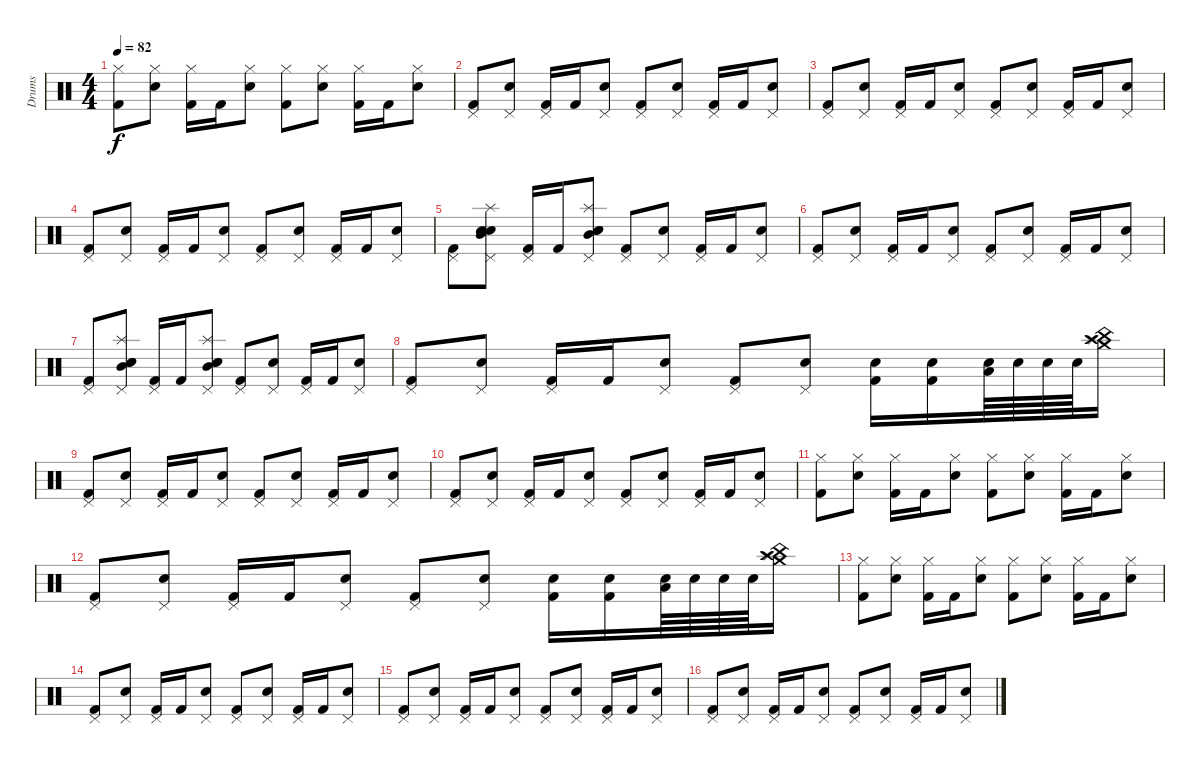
\track ("Drums" "Drums") {instrument percussion}
\staff {score}
\articulation defaults
\ts (4 4)
\tempo 82
\clef neutral
\ks c
("Kick (hit) 2" "Hi-Hat (closed)").8{dy f} ("Snare (hit) 2" "Hi-Hat (closed)").8 ("Kick (hit) 2" "Hi-Hat (closed)").16 "Kick (hit) 2".16 ("Snare (hit) 2" "Hi-Hat (closed)").8 ("Kick (hit) 2" "Hi-Hat (closed)").8 ("Snare (hit) 2" "Hi-Hat (closed)").8 ("Kick (hit) 2" "Hi-Hat (closed)").16 "Kick (hit) 2".16 ("Snare (hit) 2" "Hi-Hat (closed)").8 |
("Kick (hit) 2" "Pedal Hi-Hat (hit)").8 ("Snare (hit) 2" "Pedal Hi-Hat (hit)").8 ("Kick (hit) 2" "Pedal Hi-Hat (hit)").16 "Kick (hit) 2".16 ("Snare (hit) 2" "Pedal Hi-Hat (hit)").8 ("Kick (hit) 2" "Pedal Hi-Hat (hit)").8 ("Snare (hit) 2" "Pedal Hi-Hat (hit)").8 ("Kick (hit) 2" "Pedal Hi-Hat (hit)").16 "Kick (hit) 2".16 ("Snare (hit) 2" "Pedal Hi-Hat (hit)").8 |
("Kick (hit) 2" "Pedal Hi-Hat (hit)").8 ("Snare (hit) 2" "Pedal Hi-Hat (hit)").8 ("Kick (hit) 2" "Pedal Hi-Hat (hit)").16 "Kick (hit) 2".16 ("Snare (hit) 2" "Pedal Hi-Hat (hit)").8 ("Kick (hit) 2" "Pedal Hi-Hat (hit)").8 ("Snare (hit) 2" "Pedal Hi-Hat (hit)").8 ("Kick (hit) 2" "Pedal Hi-Hat (hit)").16 "Kick (hit) 2".16 ("Snare (hit) 2" "Pedal Hi-Hat (hit)").8 |
("Kick (hit) 2" "Pedal Hi-Hat (hit)").8 ("Snare (hit) 2" "Pedal Hi-Hat (hit)").8 ("Kick (hit) 2" "Pedal Hi-Hat (hit)").16 "Kick (hit) 2".16 ("Snare (hit) 2" "Pedal Hi-Hat (hit)").8 ("Kick (hit) 2" "Pedal Hi-Hat (hit)").8 ("Snare (hit) 2" "Pedal Hi-Hat (hit)").8 ("Kick (hit) 2" "Pedal Hi-Hat (hit)").16 "Kick (hit) 2".16 ("Snare (hit) 2" "Pedal Hi-Hat (hit)").8 |
("Kick (hit) 2" "Pedal Hi-Hat (hit)").8 ("Mid Tom (hit)" "Snare (hit) 2" "Snare (hit) 2" "Splash (hit)" "Pedal Hi-Hat (hit)").8 ("Kick (hit) 2" "Pedal Hi-Hat (hit)").16 "Kick (hit) 2".16 ("Mid Tom (hit)" "Snare (hit) 2" "Electric Snare (hit)" "Splash (hit)" "Pedal Hi-Hat (hit)").8 ("Kick (hit) 2" "Pedal Hi-Hat (hit)").8 ("Snare (hit) 2" "Pedal Hi-Hat (hit)").8 ("Kick (hit) 2" "Pedal Hi-Hat (hit)").16 "Kick (hit) 2".16 ("Snare (hit) 2" "Pedal Hi-Hat (hit)").8 |
("Kick (hit) 2" "Pedal Hi-Hat (hit)").8 ("Snare (hit) 2" "Pedal Hi-Hat (hit)").8 ("Kick (hit) 2" "Pedal Hi-Hat (hit)").16 "Kick (hit) 2".16 ("Snare (hit) 2" "Pedal Hi-Hat (hit)").8 ("Kick (hit) 2" "Pedal Hi-Hat (hit)").8 ("Snare (hit) 2" "Pedal Hi-Hat (hit)").8 ("Kick (hit) 2" "Pedal Hi-Hat (hit)").16 "Kick (hit) 2".16 ("Snare (hit) 2" "Pedal Hi-Hat (hit)").8 |
("Kick (hit) 2" "Pedal Hi-Hat (hit)").8 ("Mid Tom (hit)" "Snare (hit) 2" "Electric Snare (hit)" "Splash (hit)" "Pedal Hi-Hat (hit)").8 ("Kick (hit) 2" "Pedal Hi-Hat (hit)").16 "Kick (hit) 2".16 ("Mid Tom (hit)" "Snare (hit) 2" "Electric Snare (hit)" "Splash (hit)" "Pedal Hi-Hat (hit)").8 ("Kick (hit) 2" "Pedal Hi-Hat (hit)").8 ("Snare (hit) 2" "Pedal Hi-Hat (hit)").8 ("Kick (hit) 2" "Pedal Hi-Hat (hit)").16 "Kick (hit) 2".16 ("Snare (hit) 2" "Pedal Hi-Hat (hit)").8 |
("Kick (hit) 2" "Pedal Hi-Hat (hit)").8 ("Snare (hit) 2" "Pedal Hi-Hat (hit)").8 ("Kick (hit) 2" "Pedal Hi-Hat (hit)").16 "Kick (hit) 2".16 ("Snare (hit) 2" "Pedal Hi-Hat (hit)").8 ("Kick (hit) 2" "Pedal Hi-Hat (hit)").8 ("Snare (hit) 2" "Pedal Hi-Hat (hit)").8 ("Kick (hit) 2" "Electric Snare (hit)").16 ("Kick (hit) 2" "Electric Snare (hit)").16 ("Snare (hit) 2" "Low Floor Tom (hit)").64 "Snare (hit) 2".64 "Snare (hit) 2".64 "Snare (hit) 2".64 ("China (hit)" "Crash high (hit)" "Splash (hit)" "Crash medium (hit)").16 |
("Kick (hit) 2" "Pedal Hi-Hat (hit)").8 ("Snare (hit) 2" "Pedal Hi-Hat (hit)").8 ("Kick (hit) 2" "Pedal Hi-Hat (hit)").16 "Kick (hit) 2".16 ("Snare (hit) 2" "Pedal Hi-Hat (hit)").8 ("Kick (hit) 2" "Pedal Hi-Hat (hit)").8 ("Snare (hit) 2" "Pedal Hi-Hat (hit)").8 ("Kick (hit) 2" "Pedal Hi-Hat (hit)").16 "Kick (hit) 2".16 ("Snare (hit) 2" "Pedal Hi-Hat (hit)").8 |
("Kick (hit) 2" "Pedal Hi-Hat (hit)").8 ("Snare (hit) 2" "Pedal Hi-Hat (hit)").8 ("Kick (hit) 2" "Pedal Hi-Hat (hit)").16 "Kick (hit) 2".16 ("Snare (hit) 2" "Pedal Hi-Hat (hit)").8 ("Kick (hit) 2" "Pedal Hi-Hat (hit)").8 ("Snare (hit) 2" "Pedal Hi-Hat (hit)").8 ("Kick (hit) 2" "Pedal Hi-Hat (hit)").16 "Kick (hit) 2".16 ("Snare (hit) 2" "Pedal Hi-Hat (hit)").8 |
("Kick (hit) 2" "Hi-Hat (closed)").8 ("Snare (hit) 2" "Hi-Hat (closed)").8 ("Kick (hit) 2" "Hi-Hat (closed)").16 "Kick (hit) 2".16 ("Snare (hit) 2" "Hi-Hat (closed)").8 ("Kick (hit) 2" "Hi-Hat (closed)").8 ("Snare (hit) 2" "Hi-Hat (closed)").8 ("Kick (hit) 2" "Hi-Hat (closed)").16 "Kick (hit) 2".16 ("Snare (hit) 2" "Hi-Hat (closed)").8 |
("Kick (hit) 2" "Pedal Hi-Hat (hit)").8 ("Snare (hit) 2" "Pedal Hi-Hat (hit)").8 ("Kick (hit) 2" "Pedal Hi-Hat (hit)").16 "Kick (hit) 2".16 ("Snare (hit) 2" "Pedal Hi-Hat (hit)").8 ("Kick (hit) 2" "Pedal Hi-Hat (hit)").8 ("Snare (hit) 2" "Pedal Hi-Hat (hit)").8 ("Kick (hit) 2" "Electric Snare (hit)").16 ("Kick (hit) 2" "Electric Snare (hit)").16 ("Snare (hit) 2" "Low Floor Tom (hit)").64 "Snare (hit) 2".64 "Snare (hit) 2".64 "Snare (hit) 2".64 ("China (hit)" "Crash high (hit)" "Splash (hit)" "Crash medium (hit)").16 |
("Kick (hit) 2" "Hi-Hat (closed)").8 ("Snare (hit) 2" "Hi-Hat (closed)").8 ("Kick (hit) 2" "Hi-Hat (closed)").16 "Kick (hit) 2".16 ("Snare (hit) 2" "Hi-Hat (closed)").8 ("Kick (hit) 2" "Hi-Hat (closed)").8 ("Snare (hit) 2" "Hi-Hat (closed)").8 ("Kick (hit) 2" "Hi-Hat (closed)").16 "Kick (hit) 2".16 ("Snare (hit) 2" "Hi-Hat (closed)").8 |
("Kick (hit) 2" "Pedal Hi-Hat (hit)").8 ("Snare (hit) 2" "Pedal Hi-Hat (hit)").8 ("Kick (hit) 2" "Pedal Hi-Hat (hit)").16 "Kick (hit) 2".16 ("Snare (hit) 2" "Pedal Hi-Hat (hit)").8 ("Kick (hit) 2" "Pedal Hi-Hat (hit)").8 ("Snare (hit) 2" "Pedal Hi-Hat (hit)").8 ("Kick (hit) 2" "Pedal Hi-Hat (hit)").16 "Kick (hit) 2".16 ("Snare (hit) 2" "Pedal Hi-Hat (hit)").8 |
("Kick (hit) 2" "Pedal Hi-Hat (hit)").8 ("Snare (hit) 2" "Pedal Hi-Hat (hit)").8 ("Kick (hit) 2" "Pedal Hi-Hat (hit)").16 "Kick (hit) 2".16 ("Snare (hit) 2" "Pedal Hi-Hat (hit)").8 ("Kick (hit) 2" "Pedal Hi-Hat (hit)").8 ("Snare (hit) 2" "Pedal Hi-Hat (hit)").8 ("Kick (hit) 2" "Pedal Hi-Hat (hit)").16 "Kick (hit) 2".16 ("Snare (hit) 2" "Pedal Hi-Hat (hit)").8 |
("Kick (hit) 2" "Pedal Hi-Hat (hit)").8 ("Snare (hit) 2" "Pedal Hi-Hat (hit)").8 ("Kick (hit) 2" "Pedal Hi-Hat (hit)").16 "Kick (hit) 2".16 ("Snare (hit) 2" "Pedal Hi-Hat (hit)").8 ("Kick (hit) 2" "Pedal Hi-Hat (hit)").8 ("Snare (hit) 2" "Pedal Hi-Hat (hit)").8 ("Kick (hit) 2" "Pedal Hi-Hat (hit)").16 "Kick (hit) 2".16 ("Snare (hit) 2" "Pedal Hi-Hat (hit)").8
